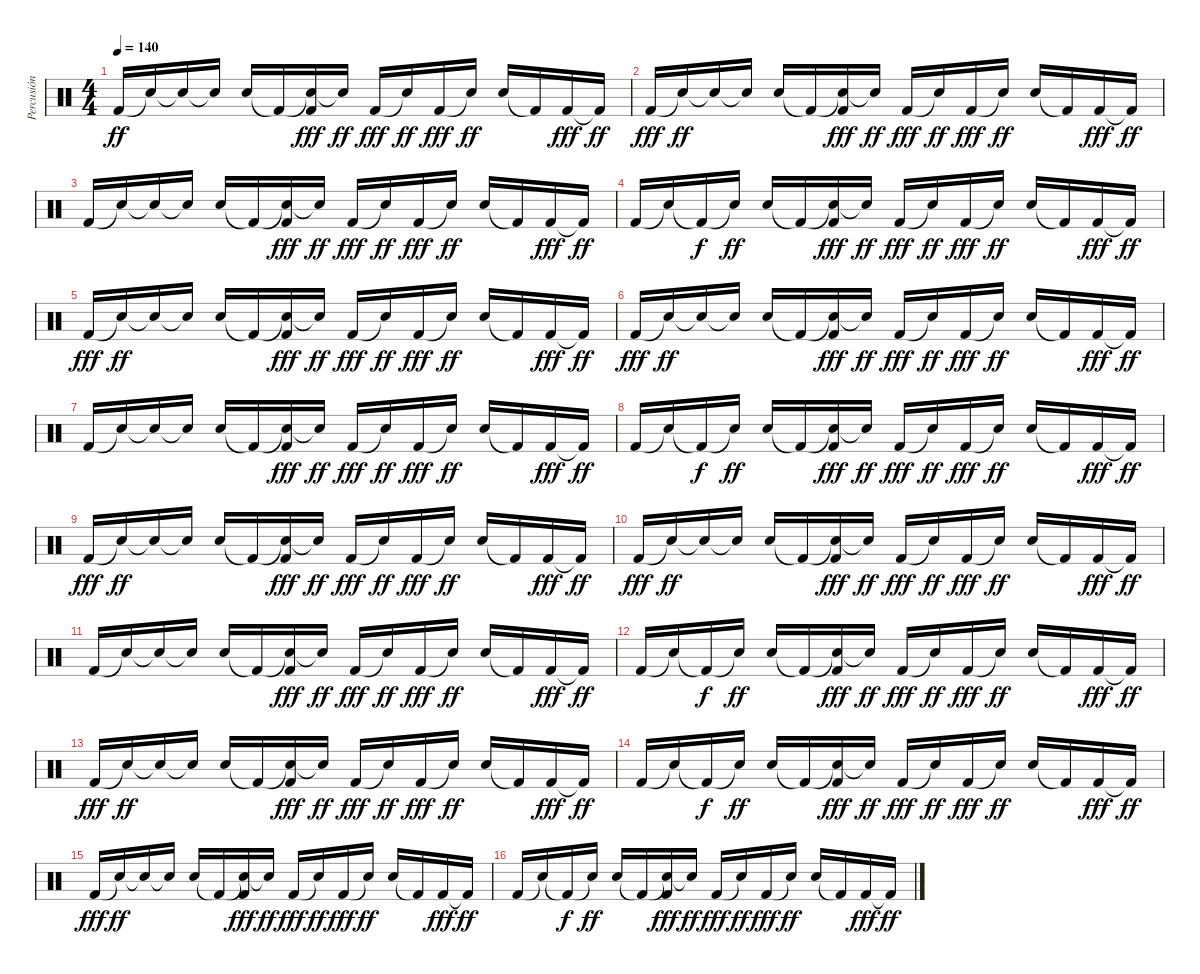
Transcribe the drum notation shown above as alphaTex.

\track ("Percusión" "Percusión") {instrument percussion}
\staff {score}
\articulation defaults
\ts (4 4)
\tempo 140
\clef neutral
\ks c "Kick (hit) 2".16{dy ff} "Snare (hit)"{t}.16 "Electric Snare (hit)"{t}.16 "Snare (hit)"{t}.16 "Electric Snare (hit)".16 "Kick (hit) 2"{t}.16
("Electric Snare (hit)"{t} "Kick (hit) 2").16{dy fff} "Snare (hit)"{t}.16{dy ff} "Kick (hit) 2".16{dy fff} "Snare (hit)"{t}.16{dy ff} "Kick (hit) 2".16{dy fff} "Snare (hit)"{t}.16{dy ff} "Electric Snare (hit)".16 "Kick (hit) 2"{t}.16 "Kick (hit) 2".16{dy fff} "Kick (hit) 2"{t}.16{dy ff} |
"Kick (hit) 2".16{dy fff} "Snare (hit)"{t}.16{dy ff} "Electric Snare (hit)"{t}.16 "Snare (hit)"{t}.16 "Electric Snare (hit)".16 "Kick (hit) 2"{t}.16 ("Electric Snare (hit)"{t} "Kick (hit) 2").16{dy fff} "Snare (hit)"{t}.16{dy ff} "Kick (hit) 2".16{dy fff} "Snare (hit)"{t}.16{dy ff} "Kick (hit) 2".16{dy fff} "Snare (hit)"{t}.16{dy ff} "Electric Snare (hit)".16 "Kick (hit) 2"{t}.16 "Kick (hit) 2".16{dy fff} "Kick (hit) 2"{t}.16{dy ff} |
"Kick (hit) 2".16 "Snare (hit)"{t}.16 "Electric Snare (hit)"{t}.16 "Snare (hit)"{t}.16 "Electric Snare (hit)".16 "Kick (hit) 2"{t}.16 ("Electric Snare (hit)"{t} "Kick (hit) 2").16{dy fff} "Snare (hit)"{t}.16{dy ff} "Kick (hit) 2".16{dy fff} "Snare (hit)"{t}.16{dy ff} "Kick (hit) 2".16{dy fff} "Snare (hit)"{t}.16{dy ff} "Electric Snare (hit)".16 "Kick (hit) 2"{t}.16 "Kick (hit) 2".16{dy fff} "Kick (hit) 2"{t}.16{dy ff} |
"Kick (hit) 2".16 "Snare (hit)"{t}.16 "Kick (hit) 2"{t}.16{dy f} "Snare (hit)"{t}.16{dy ff} "Electric Snare (hit)".16 "Kick (hit) 2"{t}.16 ("Electric Snare (hit)"{t} "Kick (hit) 2").16{dy fff} "Snare (hit)"{t}.16{dy ff} "Kick (hit) 2".16{dy fff} "Snare (hit)"{t}.16{dy ff} "Kick (hit) 2".16{dy fff} "Snare (hit)"{t}.16{dy ff} "Electric Snare (hit)".16 "Kick (hit) 2"{t}.16 "Kick (hit) 2".16{dy fff} "Kick (hit) 2"{t}.16{dy ff} |
"Kick (hit) 2".16{dy fff} "Snare (hit)"{t}.16{dy ff} "Electric Snare (hit)"{t}.16 "Snare (hit)"{t}.16 "Electric Snare (hit)".16 "Kick (hit) 2"{t}.16 ("Electric Snare (hit)"{t} "Kick (hit) 2").16{dy fff} "Snare (hit)"{t}.16{dy ff} "Kick (hit) 2".16{dy fff} "Snare (hit)"{t}.16{dy ff} "Kick (hit) 2".16{dy fff} "Snare (hit)"{t}.16{dy ff} "Electric Snare (hit)".16 "Kick (hit) 2"{t}.16 "Kick (hit) 2".16{dy fff} "Kick (hit) 2"{t}.16{dy ff} |
"Kick (hit) 2".16{dy fff} "Snare (hit)"{t}.16{dy ff} "Electric Snare (hit)"{t}.16 "Snare (hit)"{t}.16 "Electric Snare (hit)".16 "Kick (hit) 2"{t}.16 ("Electric Snare (hit)"{t} "Kick (hit) 2").16{dy fff} "Snare (hit)"{t}.16{dy ff} "Kick (hit) 2".16{dy fff} "Snare (hit)"{t}.16{dy ff} "Kick (hit) 2".16{dy fff} "Snare (hit)"{t}.16{dy ff} "Electric Snare (hit)".16 "Kick (hit) 2"{t}.16 "Kick (hit) 2".16{dy fff} "Kick (hit) 2"{t}.16{dy ff} |
"Kick (hit) 2".16 "Snare (hit)"{t}.16 "Electric Snare (hit)"{t}.16 "Snare (hit)"{t}.16 "Electric Snare (hit)".16 "Kick (hit) 2"{t}.16 ("Electric Snare (hit)"{t} "Kick (hit) 2").16{dy fff} "Snare (hit)"{t}.16{dy ff} "Kick (hit) 2".16{dy fff} "Snare (hit)"{t}.16{dy ff} "Kick (hit) 2".16{dy fff} "Snare (hit)"{t}.16{dy ff} "Electric Snare (hit)".16 "Kick (hit) 2"{t}.16 "Kick (hit) 2".16{dy fff} "Kick (hit) 2"{t}.16{dy ff} |
"Kick (hit) 2".16 "Snare (hit)"{t}.16 "Kick (hit) 2"{t}.16{dy f} "Snare (hit)"{t}.16{dy ff} "Electric Snare (hit)".16 "Kick (hit) 2"{t}.16 ("Electric Snare (hit)"{t} "Kick (hit) 2").16{dy fff} "Snare (hit)"{t}.16{dy ff} "Kick (hit) 2".16{dy fff} "Snare (hit)"{t}.16{dy ff} "Kick (hit) 2".16{dy fff} "Snare (hit)"{t}.16{dy ff} "Electric Snare (hit)".16 "Kick (hit) 2"{t}.16 "Kick (hit) 2".16{dy fff} "Kick (hit) 2"{t}.16{dy ff} |
"Kick (hit) 2".16{dy fff} "Snare (hit)"{t}.16{dy ff} "Electric Snare (hit)"{t}.16 "Snare (hit)"{t}.16 "Electric Snare (hit)".16 "Kick (hit) 2"{t}.16 ("Electric Snare (hit)"{t} "Kick (hit) 2").16{dy fff} "Snare (hit)"{t}.16{dy ff} "Kick (hit) 2".16{dy fff} "Snare (hit)"{t}.16{dy ff} "Kick (hit) 2".16{dy fff} "Snare (hit)"{t}.16{dy ff} "Electric Snare (hit)".16 "Kick (hit) 2"{t}.16 "Kick (hit) 2".16{dy fff} "Kick (hit) 2"{t}.16{dy ff} |
"Kick (hit) 2".16{dy fff} "Snare (hit)"{t}.16{dy ff} "Electric Snare (hit)"{t}.16 "Snare (hit)"{t}.16 "Electric Snare (hit)".16 "Kick (hit) 2"{t}.16 ("Electric Snare (hit)"{t} "Kick (hit) 2").16{dy fff} "Snare (hit)"{t}.16{dy ff} "Kick (hit) 2".16{dy fff} "Snare (hit)"{t}.16{dy ff} "Kick (hit) 2".16{dy fff} "Snare (hit)"{t}.16{dy ff} "Electric Snare (hit)".16 "Kick (hit) 2"{t}.16 "Kick (hit) 2".16{dy fff} "Kick (hit) 2"{t}.16{dy ff} |
"Kick (hit) 2".16 "Snare (hit)"{t}.16 "Electric Snare (hit)"{t}.16 "Snare (hit)"{t}.16 "Electric Snare (hit)".16 "Kick (hit) 2"{t}.16 ("Electric Snare (hit)"{t} "Kick (hit) 2").16{dy fff} "Snare (hit)"{t}.16{dy ff} "Kick (hit) 2".16{dy fff} "Snare (hit)"{t}.16{dy ff} "Kick (hit) 2".16{dy fff} "Snare (hit)"{t}.16{dy ff} "Electric Snare (hit)".16 "Kick (hit) 2"{t}.16 "Kick (hit) 2".16{dy fff} "Kick (hit) 2"{t}.16{dy ff} |
"Kick (hit) 2".16 "Snare (hit)"{t}.16 "Kick (hit) 2"{t}.16{dy f} "Snare (hit)"{t}.16{dy ff} "Electric Snare (hit)".16 "Kick (hit) 2"{t}.16 ("Electric Snare (hit)"{t} "Kick (hit) 2").16{dy fff} "Snare (hit)"{t}.16{dy ff} "Kick (hit) 2".16{dy fff} "Snare (hit)"{t}.16{dy ff} "Kick (hit) 2".16{dy fff} "Snare (hit)"{t}.16{dy ff} "Electric Snare (hit)".16 "Kick (hit) 2"{t}.16 "Kick (hit) 2".16{dy fff} "Kick (hit) 2"{t}.16{dy ff} |
"Kick (hit) 2".16{dy fff} "Snare (hit)"{t}.16{dy ff} "Electric Snare (hit)"{t}.16 "Snare (hit)"{t}.16 "Electric Snare (hit)".16 "Kick (hit) 2"{t}.16 ("Electric Snare (hit)"{t} "Kick (hit) 2").16{dy fff} "Snare (hit)"{t}.16{dy ff} "Kick (hit) 2".16{dy fff} "Snare (hit)"{t}.16{dy ff} "Kick (hit) 2".16{dy fff} "Snare (hit)"{t}.16{dy ff} "Electric Snare (hit)".16 "Kick (hit) 2"{t}.16 "Kick (hit) 2".16{dy fff} "Kick (hit) 2"{t}.16{dy ff} |
"Kick (hit) 2".16 "Snare (hit)"{t}.16 "Kick (hit) 2"{t}.16{dy f} "Snare (hit)"{t}.16{dy ff} "Electric Snare (hit)".16 "Kick (hit) 2"{t}.16 ("Electric Snare (hit)"{t} "Kick (hit) 2").16{dy fff} "Snare (hit)"{t}.16{dy ff} "Kick (hit) 2".16{dy fff} "Snare (hit)"{t}.16{dy ff} "Kick (hit) 2".16{dy fff} "Snare (hit)"{t}.16{dy ff} "Electric Snare (hit)".16 "Kick (hit) 2"{t}.16 "Kick (hit) 2".16{dy fff} "Kick (hit) 2"{t}.16{dy ff} |
"Kick (hit) 2".16{dy fff} "Snare (hit)"{t}.16{dy ff} "Electric Snare (hit)"{t}.16 "Snare (hit)"{t}.16 "Electric Snare (hit)".16 "Kick (hit) 2"{t}.16 ("Electric Snare (hit)"{t} "Kick (hit) 2").16{dy fff} "Snare (hit)"{t}.16{dy ff} "Kick (hit) 2".16{dy fff} "Snare (hit)"{t}.16{dy ff} "Kick (hit) 2".16{dy fff} "Snare (hit)"{t}.16{dy ff} "Electric Snare (hit)".16 "Kick (hit) 2"{t}.16 "Kick (hit) 2".16{dy fff} "Kick (hit) 2"{t}.16{dy ff} |
"Kick (hit) 2".16 "Snare (hit)"{t}.16 "Kick (hit) 2"{t}.16{dy f} "Snare (hit)"{t}.16{dy ff} "Electric Snare (hit)".16 "Kick (hit) 2"{t}.16 ("Electric Snare (hit)"{t} "Kick (hit) 2").16{dy fff} "Snare (hit)"{t}.16{dy ff} "Kick (hit) 2".16{dy fff} "Snare (hit)"{t}.16{dy ff} "Kick (hit) 2".16{dy fff} "Snare (hit)"{t}.16{dy ff} "Electric Snare (hit)".16 "Kick (hit) 2"{t}.16 "Kick (hit) 2".16{dy fff} "Kick (hit) 2"{t}.16{dy ff}
